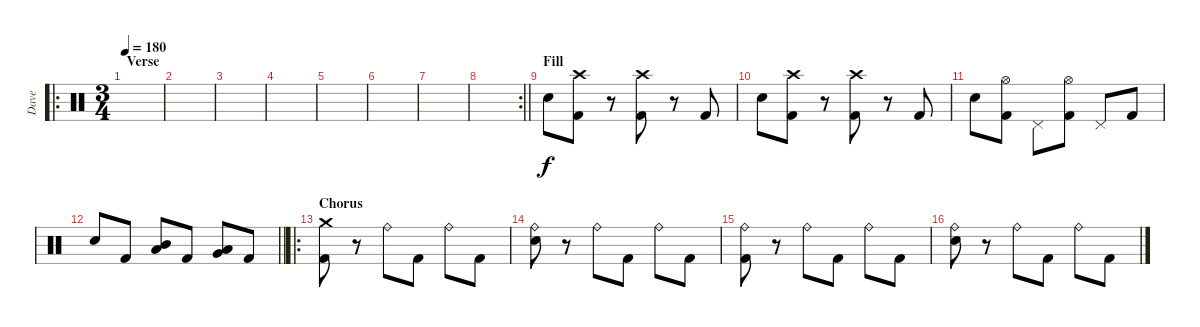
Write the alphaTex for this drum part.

\track ("Dave" "Dave") {instrument percussion}
\staff {score}
\articulation defaults
\ro
\ts (3 4)
\section ("" "Verse")
\tempo 180
\clef neutral
\ks c
|
|
|
|
|
|
|
\rc 2
\barLineRight lightlight
|
\section ("" "Fill")
"Electric Snare (hit)".8 ("Kick (hit) 2" "Crash high (hit)").8 r.8 ("Kick (hit) 2" "Crash high (hit)").8 r.8 "Kick (hit) 2".8 |
"Electric Snare (hit)".8 ("Kick (hit) 2" "Crash high (hit)").8 r.8 ("Kick (hit) 2" "Crash high (hit)").8 r.8 "Kick (hit) 2".8 |
"Electric Snare (hit)".8 ("Kick (hit) 2" "Hi-Hat (open)").8 "Pedal Hi-Hat (hit)".8 ("Kick (hit) 2" "Hi-Hat (open)").8 "Pedal Hi-Hat (hit)".8 "Kick (hit) 2".8 |
\barLineRight lightlight "Electric Snare (hit)".8 "Kick (hit) 2".8
("Mid Tom (hit)" "Low Tom (hit)").8 "Kick (hit) 2".8 ("Low Tom (hit)" "Very Low Tom (hit)").8 "Kick (hit) 2".8 |
\ro
\section ("" "Chorus")
("Kick (hit) 2" "Crash medium (hit)").8 r.8 "Ride (bell)".8 "Kick (hit) 2".8 "Ride (bell)".8 "Kick (hit) 2".8 |
("Electric Snare (hit)" "Ride (bell)").8 r.8 "Ride (bell)".8 "Kick (hit) 2".8 "Ride (bell)".8 "Kick (hit) 2".8 |
("Kick (hit) 2" "Ride (bell)").8 r.8 "Ride (bell)".8 "Kick (hit) 2".8 "Ride (bell)".8 "Kick (hit) 2".8 |
("Electric Snare (hit)" "Ride (bell)").8 r.8 "Ride (bell)".8 "Kick (hit) 2".8 "Ride (bell)".8 "Kick (hit) 2".8
